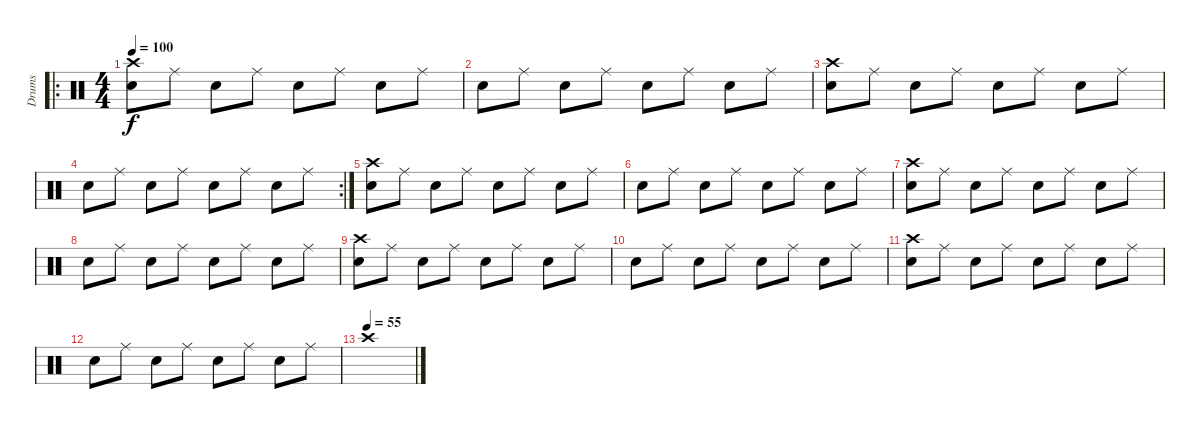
\track ("Drums" "Drums") {instrument percussion}
\staff {score}
\articulation defaults
\ro
\ts (4 4)
\tempo 100
\clef neutral
\ks c
("Crash high (hit)" "Snare (hit) 2").8{dy f} "Ride (middle)".8 "Snare (hit) 2".8 "Ride (middle)".8 "Snare (hit) 2".8 "Ride (middle)".8 "Snare (hit) 2".8 "Ride (middle)".8 |
"Snare (hit) 2".8 "Ride (middle)".8 "Snare (hit) 2".8 "Ride (middle)".8 "Snare (hit) 2".8 "Ride (middle)".8 "Snare (hit) 2".8 "Ride (middle)".8 |
("Crash high (hit)" "Snare (hit) 2").8 "Ride (middle)".8 "Snare (hit) 2".8 "Ride (middle)".8 "Snare (hit) 2".8 "Ride (middle)".8 "Snare (hit) 2".8 "Ride (middle)".8 |
\rc 2 "Snare (hit) 2".8 "Ride (middle)".8 "Snare (hit) 2".8 "Ride (middle)".8 "Snare (hit) 2".8 "Ride (middle)".8 "Snare (hit) 2".8 "Ride (middle)".8
|
("Crash high (hit)" "Snare (hit) 2").8 "Ride (middle)".8 "Snare (hit) 2".8 "Ride (middle)".8 "Snare (hit) 2".8 "Ride (middle)".8 "Snare (hit) 2".8 "Ride (middle)".8 |
"Snare (hit) 2".8 "Ride (middle)".8 "Snare (hit) 2".8 "Ride (middle)".8 "Snare (hit) 2".8 "Ride (middle)".8 "Snare (hit) 2".8 "Ride (middle)".8 |
("Crash high (hit)" "Snare (hit) 2").8 "Ride (middle)".8 "Snare (hit) 2".8 "Ride (middle)".8 "Snare (hit) 2".8 "Ride (middle)".8 "Snare (hit) 2".8 "Ride (middle)".8 |
"Snare (hit) 2".8 "Ride (middle)".8 "Snare (hit) 2".8 "Ride (middle)".8 "Snare (hit) 2".8 "Ride (middle)".8 "Snare (hit) 2".8 "Ride (middle)".8 |
("Crash high (hit)" "Snare (hit) 2").8 "Ride (middle)".8 "Snare (hit) 2".8 "Ride (middle)".8 "Snare (hit) 2".8 "Ride (middle)".8 "Snare (hit) 2".8 "Ride (middle)".8 |
"Snare (hit) 2".8 "Ride (middle)".8 "Snare (hit) 2".8 "Ride (middle)".8 "Snare (hit) 2".8 "Ride (middle)".8 "Snare (hit) 2".8 "Ride (middle)".8 |
("Crash high (hit)" "Snare (hit) 2").8 "Ride (middle)".8 "Snare (hit) 2".8 "Ride (middle)".8 "Snare (hit) 2".8 "Ride (middle)".8 "Snare (hit) 2".8 "Ride (middle)".8 |
"Snare (hit) 2".8 "Ride (middle)".8 "Snare (hit) 2".8 "Ride (middle)".8 "Snare (hit) 2".8 "Ride (middle)".8 "Snare (hit) 2".8 "Ride (middle)".8 |
\tempo (55)
"Crash high (hit)".1
